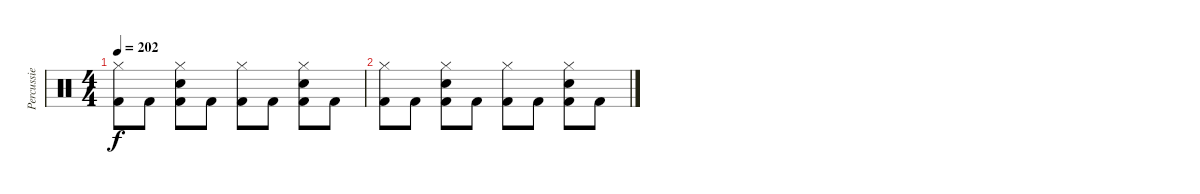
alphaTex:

\track ("Percussie" "Percussie") {instrument percussion}
\staff {score}
\articulation defaults
\ts (4 4)
\tempo 202
\clef neutral
\ks c
("Hi-Hat (closed)" "Kick (hit) 2").8{dy f} "Kick (hit) 2".8 ("Hi-Hat (closed)" "Snare (hit) 2" "Kick (hit) 2").8 "Kick (hit) 2".8 ("Hi-Hat (closed)" "Kick (hit) 2").8 "Kick (hit) 2".8 ("Hi-Hat (closed)" "Snare (hit) 2" "Kick (hit) 2").8 "Kick (hit) 2".8 |
("Hi-Hat (closed)" "Kick (hit) 2").8 "Kick (hit) 2".8 ("Hi-Hat (closed)" "Snare (hit) 2" "Kick (hit) 2").8 "Kick (hit) 2".8 ("Hi-Hat (closed)" "Kick (hit) 2").8 "Kick (hit) 2".8 ("Hi-Hat (closed)" "Snare (hit) 2" "Kick (hit) 2").8 "Kick (hit) 2".8
